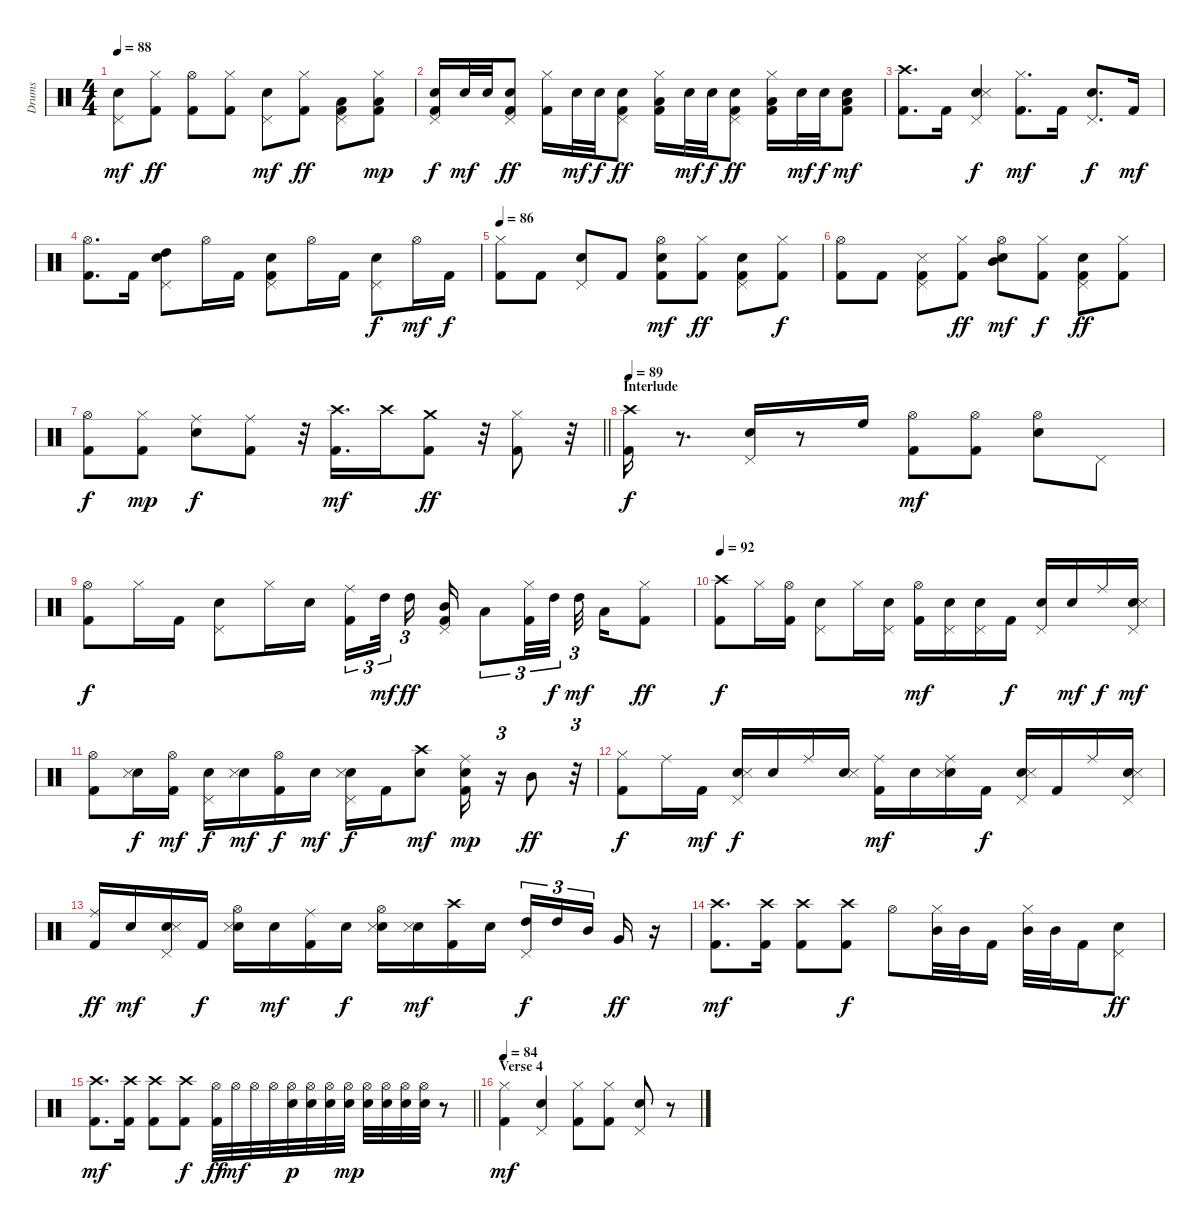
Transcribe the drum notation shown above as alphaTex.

\track ("Drums" "Drums") {instrument percussion}
\staff {score}
\articulation defaults
\ts (4 4)
\tempo 88
\clef neutral
\ks c
("Pedal Hi-Hat (hit)" "Snare (hit) 2").8{dy mf} ("Hi-Hat (closed)" "Kick (hit) 2").8{dy ff} ("Hi-Hat (open)" "Kick (hit) 2").8 ("Hi-Hat (closed)" "Kick (hit) 2").8 ("Pedal Hi-Hat (hit)" "Snare (hit) 2").8{dy mf} ("Hi-Hat (closed)" "Kick (hit) 2").8{dy ff} ("Pedal Hi-Hat (hit)" "Low Tom (hit)" "Kick (hit) 2").8 ("Hi-Hat (closed)" "Low Tom (hit)" "Kick (hit) 2").8{dy mp} |
("Pedal Hi-Hat (hit)" "Snare (hit) 2" "Kick (hit) 2").16{dy f} "Snare (hit) 2".32{dy mf} "Snare (hit) 2".32 ("Pedal Hi-Hat (hit)" "Snare (hit) 2" "Kick (hit) 2").8{dy ff} ("Hi-Hat (closed)" "Kick (hit) 2").16 "Snare (hit) 2".32{dy mf} "Snare (hit) 2".32{dy f} ("Pedal Hi-Hat (hit)" "Snare (hit) 2" "Kick (hit) 2").8{dy ff} ("Hi-Hat (closed)" "Low Tom (hit)" "Kick (hit) 2").16 "Snare (hit) 2".32{dy mf} "Snare (hit) 2".32{dy f} ("Pedal Hi-Hat (hit)" "Snare (hit) 2" "Kick (hit) 2").8{dy ff} ("Hi-Hat (closed)" "Low Tom (hit)" "Kick (hit) 2").16 "Snare (hit) 2".32{dy mf} "Snare (hit) 2".32{dy f} ("Snare (hit) 2" "Kick (hit) 2" "Low Tom (hit)").8{dy mf} |
("Crash high (hit)" "Kick (hit) 2").8{d} "Kick (hit) 2".16 ("Pedal Hi-Hat (hit)" "Snare (hit) 2" "Snare (side stick) 3").4{dy f} ("Hi-Hat (closed)" "Kick (hit) 2").8{d dy mf} "Kick (hit) 2".16 ("Pedal Hi-Hat (hit)" "Snare (hit) 2").8{d dy f} "Kick (hit) 2".16{dy mf} |
("Hi-Hat (open)" "Kick (hit) 2").8{d} "Kick (hit) 2".16 ("Pedal Hi-Hat (hit)" "High Tom (hit)" "Snare (hit) 2").8 "Hi-Hat (open)".16 "Kick (hit) 2".16 ("Pedal Hi-Hat (hit)" "Snare (hit) 2" "Kick (hit) 2").8 "Hi-Hat (open)".16 "Kick (hit) 2".16 ("Pedal Hi-Hat (hit)" "Snare (hit) 2").8{dy f} "Hi-Hat (open)".16{dy mf} "Kick (hit) 2".16{dy f} |
\tempo 86
("Hi-Hat (closed)" "Kick (hit) 2").8 "Kick (hit) 2".8 ("Pedal Hi-Hat (hit)" "Snare (hit) 2").8 "Kick (hit) 2".8 ("Hi-Hat (open)" "Snare (hit) 2" "Kick (hit) 2").8{dy mf} ("Hi-Hat (closed)" "Kick (hit) 2").8{dy ff} ("Pedal Hi-Hat (hit)" "Snare (hit) 2" "Kick (hit) 2").8 ("Hi-Hat (closed)" "Kick (hit) 2").8{dy f} |
("Hi-Hat (open)" "Kick (hit) 2").8 "Kick (hit) 2".8 ("Pedal Hi-Hat (hit)" "Snare (side stick) 3" "Kick (hit) 2").8 ("Hi-Hat (closed)" "Kick (hit) 2").8{dy ff} ("Hi-Hat (open)" "Snare (hit) 2" "Mid Tom (hit)").8{dy mf} ("Hi-Hat (closed)" "Kick (hit) 2").8{dy f} ("Pedal Hi-Hat (hit)" "Snare (hit) 2" "Kick (hit) 2").8{dy ff} ("Hi-Hat (closed)" "Kick (hit) 2").8 |
\barLineRight lightlight
("Hi-Hat (open)" "Kick (hit) 2").8{dy f} ("Hi-Hat (closed)" "Kick (hit) 2").8{dy mp} ("Ride (middle)" "Snare (hit) 2").8{dy f} ("Ride (middle)" "Kick (hit) 2").8 r.32 ("Crash high (hit)" "Kick (hit) 2").16{d dy mf} "Crash high (hit)".16 ("Crash medium (hit)" "Kick (hit) 2").8{dy ff} r.32 ("Hi-Hat (closed)" "Kick (hit) 2").8 r.32 |
\section ("" "Interlude")
\tempo 89
("Crash high (hit)" "Kick (hit) 2").16{dy f} r.8{d} ("Pedal Hi-Hat (hit)" "Snare (hit) 2").16 r.8 "High Floor Tom (hit)".16 ("Hi-Hat (open)" "Kick (hit) 2").8{dy mf} ("Hi-Hat (open)" "Kick (hit) 2").8 ("Hi-Hat (open)" "Snare (hit) 2").8 "Pedal Hi-Hat (hit)".8 |
("Hi-Hat (open)" "Kick (hit) 2").8{dy f} "Hi-Hat (closed)".16 "Kick (hit) 2".16 ("Pedal Hi-Hat (hit)" "Snare (hit) 2").8 "Hi-Hat (closed)".16 "Snare (hit) 2".16 ("Ride (middle)" "Kick (hit) 2").16{tu (3 2)} "High Tom (hit)".32{tu (3 2) dy mf beam splitsecondary} "High Tom (hit)".16{tu (3 2) dy ff beam splitsecondary} ("Pedal Hi-Hat (hit)" "Mid Tom (hit)" "Kick (hit) 2").16 "Low Tom (hit)".8{tu (3 2)} ("Hi-Hat (closed)" "Kick (hit) 2").32{tu (3 2)} "High Tom (hit)".32{tu (3 2) dy f beam splitsecondary} "High Tom (hit)".32{tu (3 2) dy mf beam splitsecondary} "Low Tom (hit)".16 ("Hi-Hat (closed)" "Kick (hit) 2").8{dy ff} |
\tempo 92
("Crash high (hit)" "Kick (hit) 2").8{dy f} "Hi-Hat (closed)".16 ("Hi-Hat (open)" "Kick (hit) 2").16 ("Pedal Hi-Hat (hit)" "Snare (hit) 2").8 "Hi-Hat (closed)".16 ("Pedal Hi-Hat (hit)" "Snare (hit) 2").16 ("Hi-Hat (open)" "Kick (hit) 2").16{dy mf} ("Pedal Hi-Hat (hit)" "Snare (hit) 2").16 ("Pedal Hi-Hat (hit)" "Snare (hit) 2").16 "Kick (hit) 2".16{dy f} ("Pedal Hi-Hat (hit)" "Snare (hit) 2").16 "Snare (hit) 2".16{dy mf} "Ride (middle)".16{dy f} ("Pedal Hi-Hat (hit)" "Snare (hit) 2" "Snare (side stick) 3").16{dy mf} |
("Hi-Hat (open)" "Kick (hit) 2").8 ("Snare (hit) 2" "Snare (side stick) 3").16{dy f} ("Hi-Hat (open)" "Kick (hit) 2").16{dy mf} ("Pedal Hi-Hat (hit)" "Snare (hit) 2").16{dy f} ("Snare (hit) 2" "Snare (side stick) 3").16{dy mf} ("Hi-Hat (open)" "Kick (hit) 2").16{dy f} "Snare (hit) 2".16{dy mf} ("Pedal Hi-Hat (hit)" "Snare (hit) 2" "Snare (side stick) 3").16{dy f} "Kick (hit) 2".16 ("Crash high (hit)" "Snare (hit) 2").8{dy mf} ("Ride (middle)" "Snare (hit) 2" "Kick (hit) 2").16{dy mp} r.16{tu (3 2)} "Mid Tom (hit)".8{dy ff} r.32{tu (3 2)} |
("Hi-Hat (closed)" "Kick (hit) 2").8{dy f} "Ride (middle)".16 "Kick (hit) 2".16{dy mf} ("Pedal Hi-Hat (hit)" "Snare (hit) 2" "Snare (side stick) 3").16{dy f} "Snare (hit) 2".16 "Ride (middle)".16 ("Snare (hit) 2" "Snare (side stick) 3").16 ("Ride (middle)" "Kick (hit) 2").16{dy mf} "Snare (hit) 2".16 ("Ride (middle)" "Snare (hit) 2" "Snare (side stick) 3").16 "Kick (hit) 2".16{dy f} ("Pedal Hi-Hat (hit)" "Snare (hit) 2" "Snare (side stick) 3").16 "Kick (hit) 2".16 "Ride (middle)".16 ("Pedal Hi-Hat (hit)" "Snare (hit) 2" "Snare (side stick) 3").16 |
("Ride (middle)" "Kick (hit) 2").16{dy ff} "Snare (hit) 2".16{dy mf} ("Pedal Hi-Hat (hit)" "Snare (hit) 2" "Snare (side stick) 3").16 "Kick (hit) 2".16{dy f} ("Hi-Hat (open)" "Snare (hit) 2" "Snare (side stick) 3").16 "Snare (hit) 2".16{dy mf} ("Ride (middle)" "Kick (hit) 2").16 "Snare (hit) 2".16{dy f} ("Hi-Hat (open)" "Snare (hit) 2" "Snare (side stick) 3").16 ("Snare (hit) 2" "Snare (side stick) 3").16{dy mf} ("Crash high (hit)" "Kick (hit) 2").16 "Snare (hit) 2".16 ("Pedal Hi-Hat (hit)" "High Tom (hit)").16{tu (3 2) dy f} "High Tom (hit)".16{tu (3 2)} "Mid Tom (hit)".16{tu (3 2) beam splitsecondary} "Very Low Tom (hit)".16{dy ff} r.16 |
("Crash high (hit)" "Kick (hit) 2").8{d dy mf} ("Crash high (hit)" "Kick (hit) 2").16 ("Crash high (hit)" "Kick (hit) 2").8 ("Crash high (hit)" "Kick (hit) 2").8{dy f} "Hi-Hat (open)".8 ("Hi-Hat (closed)" "Mid Tom (hit)").32 "Mid Tom (hit)".32 "Kick (hit) 2".16 ("Hi-Hat (closed)" "Mid Tom (hit)").32 "Mid Tom (hit)".32 "Kick (hit) 2".16 ("Pedal Hi-Hat (hit)" "Snare (hit) 2").8{dy ff} |
\barLineRight lightlight
("Crash high (hit)" "Kick (hit) 2").8{d dy mf} ("Crash high (hit)" "Kick (hit) 2").16 ("Crash high (hit)" "Kick (hit) 2").8 ("Crash high (hit)" "Kick (hit) 2").8{dy f} ("Hi-Hat (open)" "Kick (hit) 2").32{dy ff} "Hi-Hat (open)".32{dy mf} "Hi-Hat (open)".32 "Hi-Hat (open)".32 ("Hi-Hat (open)" "Snare (hit) 2").32{dy p} ("Hi-Hat (open)" "Snare (hit) 2").32 ("Hi-Hat (open)" "Snare (hit) 2").32 ("Hi-Hat (open)" "Snare (hit) 2").32{dy mp} ("Hi-Hat (open)" "Snare (hit) 2").32 ("Hi-Hat (open)" "Snare (hit) 2").32 ("Hi-Hat (open)" "Snare (hit) 2").32 ("Hi-Hat (open)" "Snare (hit) 2").32 r.8 |
\section ("" "Verse 4")
\tempo 84
("Hi-Hat (closed)" "Kick (hit) 2").4{dy mf} ("Pedal Hi-Hat (hit)" "Snare (hit) 2").4 ("Hi-Hat (closed)" "Kick (hit) 2").8 ("Hi-Hat (closed)" "Kick (hit) 2").8 ("Pedal Hi-Hat (hit)" "Snare (hit) 2").8 r.8
